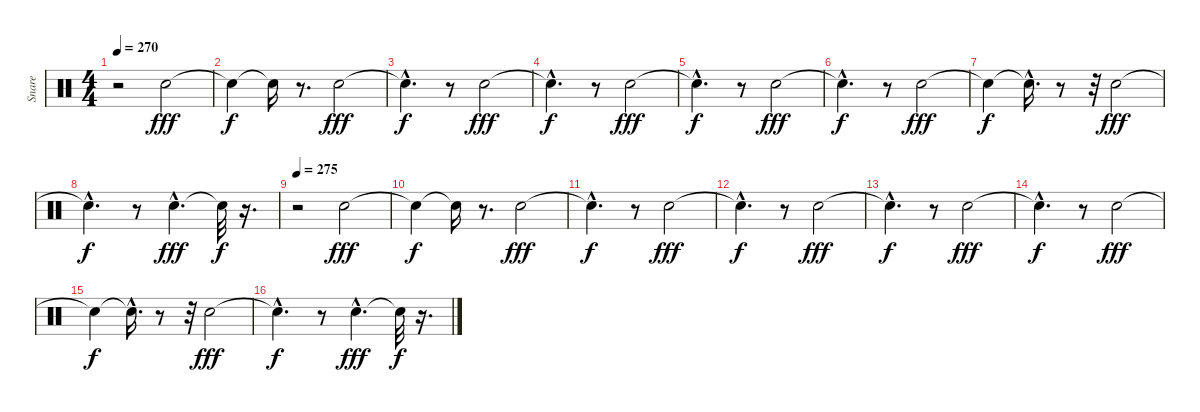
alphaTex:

\track ("Snare" "Snare") {instrument percussion}
\staff {score}
\articulation defaults
\ts (4 4)
\tempo 270
\clef neutral
\ks c
r.2{dy f} "Electric Snare (hit)".2{dy fff} |
"Snare (hit)"{t}.4{dy f} "Snare (hit)"{t}.16 r.8{d} "Electric Snare (hit)".2{dy fff} |
"Snare (hit)"{hac t}.4{d dy f} r.8 "Electric Snare (hit)".2{dy fff} |
"Snare (hit)"{hac t}.4{d dy f} r.8 "Electric Snare (hit)".2{dy fff} |
"Snare (hit)"{hac t}.4{d dy f} r.8 "Electric Snare (hit)".2{dy fff} |
"Snare (hit)"{hac t}.4{d dy f} r.8 "Electric Snare (hit)".2{dy fff} |
"Snare (hit)"{t}.4{dy f} "Snare (hit)"{hac t}.16{d} r.8 r.32 "Electric Snare (hit)".2{dy fff} |
"Snare (hit)"{hac t}.4{d dy f} r.8 "Electric Snare (hit)"{hac}.4{d dy fff} "Snare (hit)"{t}.32{dy f} r.16{d} |
\tempo 275
r.2 "Electric Snare (hit)".2{dy fff} |
"Snare (hit)"{t}.4{dy f} "Snare (hit)"{t}.16 r.8{d} "Electric Snare (hit)".2{dy fff} |
"Snare (hit)"{hac t}.4{d dy f} r.8 "Electric Snare (hit)".2{dy fff} |
"Snare (hit)"{hac t}.4{d dy f} r.8 "Electric Snare (hit)".2{dy fff} |
"Snare (hit)"{hac t}.4{d dy f} r.8 "Electric Snare (hit)".2{dy fff} |
"Snare (hit)"{hac t}.4{d dy f} r.8 "Electric Snare (hit)".2{dy fff} |
"Snare (hit)"{t}.4{dy f} "Snare (hit)"{hac t}.16{d} r.8 r.32 "Electric Snare (hit)".2{dy fff} |
"Snare (hit)"{hac t}.4{d dy f} r.8 "Electric Snare (hit)"{hac}.4{d dy fff} "Snare (hit)"{t}.32{dy f} r.16{d}
